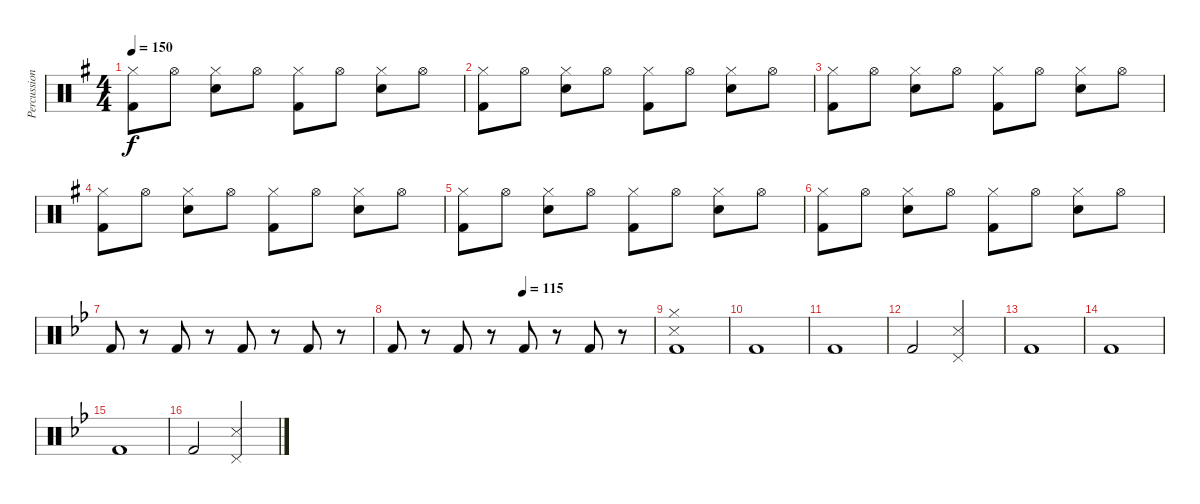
\track ("Percussion" "Percussion") {instrument percussion}
\staff {score}
\articulation defaults
\ts (4 4)
\tempo 150
\clef neutral
\ks g
("Hi-Hat (closed)" "Kick (hit) 2").8{dy f} "Hi-Hat (open)".8 ("Hi-Hat (closed)" "Snare (hit) 2").8 "Hi-Hat (open)".8 ("Hi-Hat (closed)" "Kick (hit) 2").8 "Hi-Hat (open)".8 ("Hi-Hat (closed)" "Snare (hit) 2").8 "Hi-Hat (open)".8 |
("Hi-Hat (closed)" "Kick (hit) 2").8 "Hi-Hat (open)".8 ("Hi-Hat (closed)" "Snare (hit) 2").8 "Hi-Hat (open)".8 ("Hi-Hat (closed)" "Kick (hit) 2").8 "Hi-Hat (open)".8 ("Hi-Hat (closed)" "Snare (hit) 2").8 "Hi-Hat (open)".8 |
("Hi-Hat (closed)" "Kick (hit) 2").8 "Hi-Hat (open)".8 ("Hi-Hat (closed)" "Snare (hit) 2").8 "Hi-Hat (open)".8 ("Hi-Hat (closed)" "Kick (hit) 2").8 "Hi-Hat (open)".8 ("Hi-Hat (closed)" "Snare (hit) 2").8 "Hi-Hat (open)".8 |
("Hi-Hat (closed)" "Kick (hit) 2").8 "Hi-Hat (open)".8 ("Hi-Hat (closed)" "Snare (hit) 2").8 "Hi-Hat (open)".8 ("Hi-Hat (closed)" "Kick (hit) 2").8 "Hi-Hat (open)".8 ("Hi-Hat (closed)" "Snare (hit) 2").8 "Hi-Hat (open)".8 |
("Hi-Hat (closed)" "Kick (hit) 2").8 "Hi-Hat (open)".8 ("Hi-Hat (closed)" "Snare (hit) 2").8 "Hi-Hat (open)".8 ("Hi-Hat (closed)" "Kick (hit) 2").8 "Hi-Hat (open)".8 ("Hi-Hat (closed)" "Snare (hit) 2").8 "Hi-Hat (open)".8 |
("Hi-Hat (closed)" "Kick (hit) 2").8 "Hi-Hat (open)".8 ("Hi-Hat (closed)" "Snare (hit) 2").8 "Hi-Hat (open)".8 ("Hi-Hat (closed)" "Kick (hit) 2").8 "Hi-Hat (open)".8 ("Hi-Hat (closed)" "Snare (hit) 2").8 "Hi-Hat (open)".8 |
\ks bb "Kick (hit) 2".8
r.8 "Kick (hit) 2".8 r.8 "Kick (hit) 2".8 r.8 "Kick (hit) 2".8 r.8 |
\tempo (115 0.5)
"Kick (hit) 2".8 r.8 "Kick (hit) 2".8 r.8 "Kick (hit) 2".8 r.8 "Kick (hit) 2".8 r.8 |
("Hi-Hat (closed)" "Snare (side stick) 3" "Kick (hit) 2").1 |
"Kick (hit) 2".1 |
"Kick (hit) 2".1 |
"Kick (hit) 2".2 ("Snare (side stick) 3" "Pedal Hi-Hat (hit)").2 |
"Kick (hit) 2".1 |
"Kick (hit) 2".1 |
"Kick (hit) 2".1 |
"Kick (hit) 2".2 ("Snare (side stick) 3" "Pedal Hi-Hat (hit)").2
